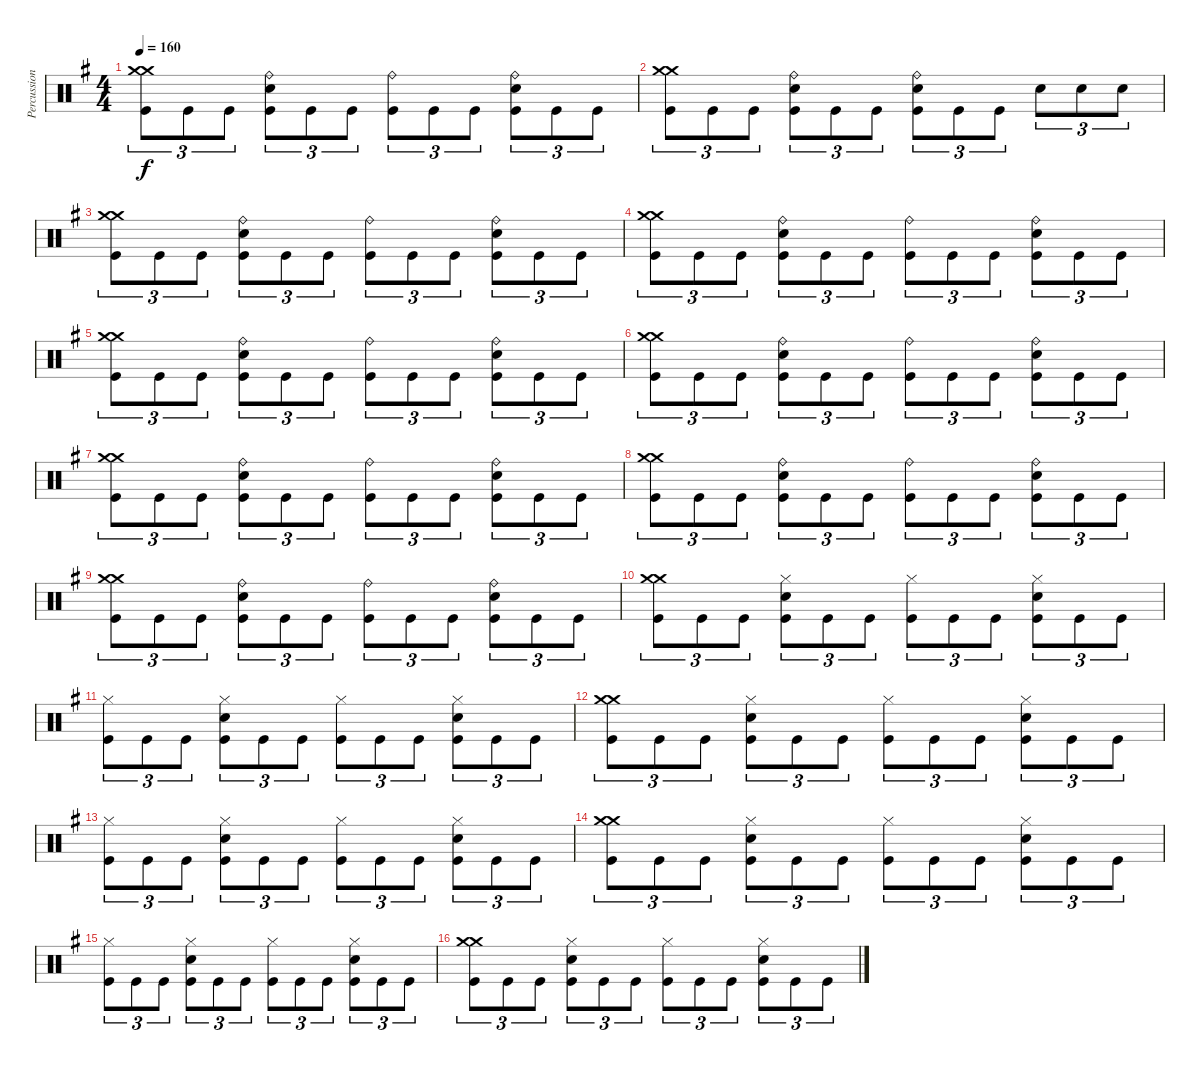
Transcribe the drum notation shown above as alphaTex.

\track ("Percussions" "Percussion") {instrument percussion}
\staff {score}
\articulation defaults
\ts (4 4)
\tempo 160
\clef neutral
\ks g
("Kick (hit)" "Crash medium (hit)" "Crash medium (hit)").8{tu (3 2) dy f} "Kick (hit)".8{tu (3 2)} "Kick (hit)".8{tu (3 2)} ("Kick (hit)" "Electric Snare (hit)" "Ride (bell)").8{tu (3 2)} "Kick (hit)".8{tu (3 2)} "Kick (hit)".8{tu (3 2)} ("Kick (hit)" "Ride (bell)").8{tu (3 2)} "Kick (hit)".8{tu (3 2)} "Kick (hit)".8{tu (3 2)} ("Kick (hit)" "Electric Snare (hit)" "Ride (bell)").8{tu (3 2)} "Kick (hit)".8{tu (3 2)} "Kick (hit)".8{tu (3 2)} |
("Kick (hit)" "Crash medium (hit)" "Crash medium (hit)").8{tu (3 2)} "Kick (hit)".8{tu (3 2)} "Kick (hit)".8{tu (3 2)} ("Kick (hit)" "Electric Snare (hit)" "Ride (bell)").8{tu (3 2)} "Kick (hit)".8{tu (3 2)} "Kick (hit)".8{tu (3 2)} ("Kick (hit)" "Electric Snare (hit)" "Ride (bell)").8{tu (3 2)} "Kick (hit)".8{tu (3 2)} "Kick (hit)".8{tu (3 2)} "Electric Snare (hit)".8{tu (3 2)} "Electric Snare (hit)".8{tu (3 2)} "Electric Snare (hit)".8{tu (3 2)} |
("Kick (hit)" "Crash medium (hit)" "Crash medium (hit)").8{tu (3 2)} "Kick (hit)".8{tu (3 2)} "Kick (hit)".8{tu (3 2)} ("Kick (hit)" "Electric Snare (hit)" "Ride (bell)").8{tu (3 2)} "Kick (hit)".8{tu (3 2)} "Kick (hit)".8{tu (3 2)} ("Kick (hit)" "Ride (bell)").8{tu (3 2)} "Kick (hit)".8{tu (3 2)} "Kick (hit)".8{tu (3 2)} ("Kick (hit)" "Electric Snare (hit)" "Ride (bell)").8{tu (3 2)} "Kick (hit)".8{tu (3 2)} "Kick (hit)".8{tu (3 2)} |
("Kick (hit)" "Crash medium (hit)" "Crash medium (hit)").8{tu (3 2)} "Kick (hit)".8{tu (3 2)} "Kick (hit)".8{tu (3 2)} ("Kick (hit)" "Electric Snare (hit)" "Ride (bell)").8{tu (3 2)} "Kick (hit)".8{tu (3 2)} "Kick (hit)".8{tu (3 2)} ("Kick (hit)" "Ride (bell)").8{tu (3 2)} "Kick (hit)".8{tu (3 2)} "Kick (hit)".8{tu (3 2)} ("Kick (hit)" "Electric Snare (hit)" "Ride (bell)").8{tu (3 2)} "Kick (hit)".8{tu (3 2)} "Kick (hit)".8{tu (3 2)} |
("Kick (hit)" "Crash medium (hit)" "Crash medium (hit)").8{tu (3 2)} "Kick (hit)".8{tu (3 2)} "Kick (hit)".8{tu (3 2)} ("Kick (hit)" "Electric Snare (hit)" "Ride (bell)").8{tu (3 2)} "Kick (hit)".8{tu (3 2)} "Kick (hit)".8{tu (3 2)} ("Kick (hit)" "Ride (bell)").8{tu (3 2)} "Kick (hit)".8{tu (3 2)} "Kick (hit)".8{tu (3 2)} ("Kick (hit)" "Electric Snare (hit)" "Ride (bell)").8{tu (3 2)} "Kick (hit)".8{tu (3 2)} "Kick (hit)".8{tu (3 2)} |
("Kick (hit)" "Crash medium (hit)" "Crash medium (hit)").8{tu (3 2)} "Kick (hit)".8{tu (3 2)} "Kick (hit)".8{tu (3 2)} ("Kick (hit)" "Electric Snare (hit)" "Ride (bell)").8{tu (3 2)} "Kick (hit)".8{tu (3 2)} "Kick (hit)".8{tu (3 2)} ("Kick (hit)" "Ride (bell)").8{tu (3 2)} "Kick (hit)".8{tu (3 2)} "Kick (hit)".8{tu (3 2)} ("Kick (hit)" "Electric Snare (hit)" "Ride (bell)").8{tu (3 2)} "Kick (hit)".8{tu (3 2)} "Kick (hit)".8{tu (3 2)} |
("Kick (hit)" "Crash medium (hit)" "Crash medium (hit)").8{tu (3 2)} "Kick (hit)".8{tu (3 2)} "Kick (hit)".8{tu (3 2)} ("Kick (hit)" "Electric Snare (hit)" "Ride (bell)").8{tu (3 2)} "Kick (hit)".8{tu (3 2)} "Kick (hit)".8{tu (3 2)} ("Kick (hit)" "Ride (bell)").8{tu (3 2)} "Kick (hit)".8{tu (3 2)} "Kick (hit)".8{tu (3 2)} ("Kick (hit)" "Electric Snare (hit)" "Ride (bell)").8{tu (3 2)} "Kick (hit)".8{tu (3 2)} "Kick (hit)".8{tu (3 2)} |
("Kick (hit)" "Crash medium (hit)" "Crash medium (hit)").8{tu (3 2)} "Kick (hit)".8{tu (3 2)} "Kick (hit)".8{tu (3 2)} ("Kick (hit)" "Electric Snare (hit)" "Ride (bell)").8{tu (3 2)} "Kick (hit)".8{tu (3 2)} "Kick (hit)".8{tu (3 2)} ("Kick (hit)" "Ride (bell)").8{tu (3 2)} "Kick (hit)".8{tu (3 2)} "Kick (hit)".8{tu (3 2)} ("Kick (hit)" "Electric Snare (hit)" "Ride (bell)").8{tu (3 2)} "Kick (hit)".8{tu (3 2)} "Kick (hit)".8{tu (3 2)} |
("Kick (hit)" "Crash medium (hit)" "Crash medium (hit)").8{tu (3 2)} "Kick (hit)".8{tu (3 2)} "Kick (hit)".8{tu (3 2)} ("Kick (hit)" "Electric Snare (hit)" "Ride (bell)").8{tu (3 2)} "Kick (hit)".8{tu (3 2)} "Kick (hit)".8{tu (3 2)} ("Kick (hit)" "Ride (bell)").8{tu (3 2)} "Kick (hit)".8{tu (3 2)} "Kick (hit)".8{tu (3 2)} ("Kick (hit)" "Electric Snare (hit)" "Ride (bell)").8{tu (3 2)} "Kick (hit)".8{tu (3 2)} "Kick (hit)".8{tu (3 2)} |
("Kick (hit)" "Crash medium (hit)" "Crash medium (hit)").8{tu (3 2)} "Kick (hit)".8{tu (3 2)} "Kick (hit)".8{tu (3 2)} ("Kick (hit)" "Electric Snare (hit)" "Hi-Hat (closed)").8{tu (3 2)} "Kick (hit)".8{tu (3 2)} "Kick (hit)".8{tu (3 2)} ("Kick (hit)" "Hi-Hat (closed)").8{tu (3 2)} "Kick (hit)".8{tu (3 2)} "Kick (hit)".8{tu (3 2)} ("Kick (hit)" "Electric Snare (hit)" "Hi-Hat (closed)").8{tu (3 2)} "Kick (hit)".8{tu (3 2)} "Kick (hit)".8{tu (3 2)} |
("Kick (hit)" "Hi-Hat (closed)").8{tu (3 2)} "Kick (hit)".8{tu (3 2)} "Kick (hit)".8{tu (3 2)} ("Kick (hit)" "Electric Snare (hit)" "Hi-Hat (closed)").8{tu (3 2)} "Kick (hit)".8{tu (3 2)} "Kick (hit)".8{tu (3 2)} ("Kick (hit)" "Hi-Hat (closed)").8{tu (3 2)} "Kick (hit)".8{tu (3 2)} "Kick (hit)".8{tu (3 2)} ("Kick (hit)" "Electric Snare (hit)" "Hi-Hat (closed)").8{tu (3 2)} "Kick (hit)".8{tu (3 2)} "Kick (hit)".8{tu (3 2)} |
("Kick (hit)" "Crash medium (hit)" "Crash medium (hit)").8{tu (3 2)} "Kick (hit)".8{tu (3 2)} "Kick (hit)".8{tu (3 2)} ("Kick (hit)" "Electric Snare (hit)" "Hi-Hat (closed)").8{tu (3 2)} "Kick (hit)".8{tu (3 2)} "Kick (hit)".8{tu (3 2)} ("Kick (hit)" "Hi-Hat (closed)").8{tu (3 2)} "Kick (hit)".8{tu (3 2)} "Kick (hit)".8{tu (3 2)} ("Kick (hit)" "Electric Snare (hit)" "Hi-Hat (closed)").8{tu (3 2)} "Kick (hit)".8{tu (3 2)} "Kick (hit)".8{tu (3 2)} |
("Kick (hit)" "Hi-Hat (closed)").8{tu (3 2)} "Kick (hit)".8{tu (3 2)} "Kick (hit)".8{tu (3 2)} ("Kick (hit)" "Electric Snare (hit)" "Hi-Hat (closed)").8{tu (3 2)} "Kick (hit)".8{tu (3 2)} "Kick (hit)".8{tu (3 2)} ("Kick (hit)" "Hi-Hat (closed)").8{tu (3 2)} "Kick (hit)".8{tu (3 2)} "Kick (hit)".8{tu (3 2)} ("Kick (hit)" "Electric Snare (hit)" "Hi-Hat (closed)").8{tu (3 2)} "Kick (hit)".8{tu (3 2)} "Kick (hit)".8{tu (3 2)} |
("Kick (hit)" "Crash medium (hit)" "Crash medium (hit)").8{tu (3 2)} "Kick (hit)".8{tu (3 2)} "Kick (hit)".8{tu (3 2)} ("Kick (hit)" "Electric Snare (hit)" "Hi-Hat (closed)").8{tu (3 2)} "Kick (hit)".8{tu (3 2)} "Kick (hit)".8{tu (3 2)} ("Kick (hit)" "Hi-Hat (closed)").8{tu (3 2)} "Kick (hit)".8{tu (3 2)} "Kick (hit)".8{tu (3 2)} ("Kick (hit)" "Electric Snare (hit)" "Hi-Hat (closed)").8{tu (3 2)} "Kick (hit)".8{tu (3 2)} "Kick (hit)".8{tu (3 2)} |
("Kick (hit)" "Hi-Hat (closed)").8{tu (3 2)} "Kick (hit)".8{tu (3 2)} "Kick (hit)".8{tu (3 2)} ("Kick (hit)" "Electric Snare (hit)" "Hi-Hat (closed)").8{tu (3 2)} "Kick (hit)".8{tu (3 2)} "Kick (hit)".8{tu (3 2)} ("Kick (hit)" "Hi-Hat (closed)").8{tu (3 2)} "Kick (hit)".8{tu (3 2)} "Kick (hit)".8{tu (3 2)} ("Kick (hit)" "Electric Snare (hit)" "Hi-Hat (closed)").8{tu (3 2)} "Kick (hit)".8{tu (3 2)} "Kick (hit)".8{tu (3 2)} |
("Kick (hit)" "Crash medium (hit)" "Crash medium (hit)").8{tu (3 2)} "Kick (hit)".8{tu (3 2)} "Kick (hit)".8{tu (3 2)} ("Kick (hit)" "Electric Snare (hit)" "Hi-Hat (closed)").8{tu (3 2)} "Kick (hit)".8{tu (3 2)} "Kick (hit)".8{tu (3 2)} ("Kick (hit)" "Hi-Hat (closed)").8{tu (3 2)} "Kick (hit)".8{tu (3 2)} "Kick (hit)".8{tu (3 2)} ("Kick (hit)" "Electric Snare (hit)" "Hi-Hat (closed)").8{tu (3 2)} "Kick (hit)".8{tu (3 2)} "Kick (hit)".8{tu (3 2)}
